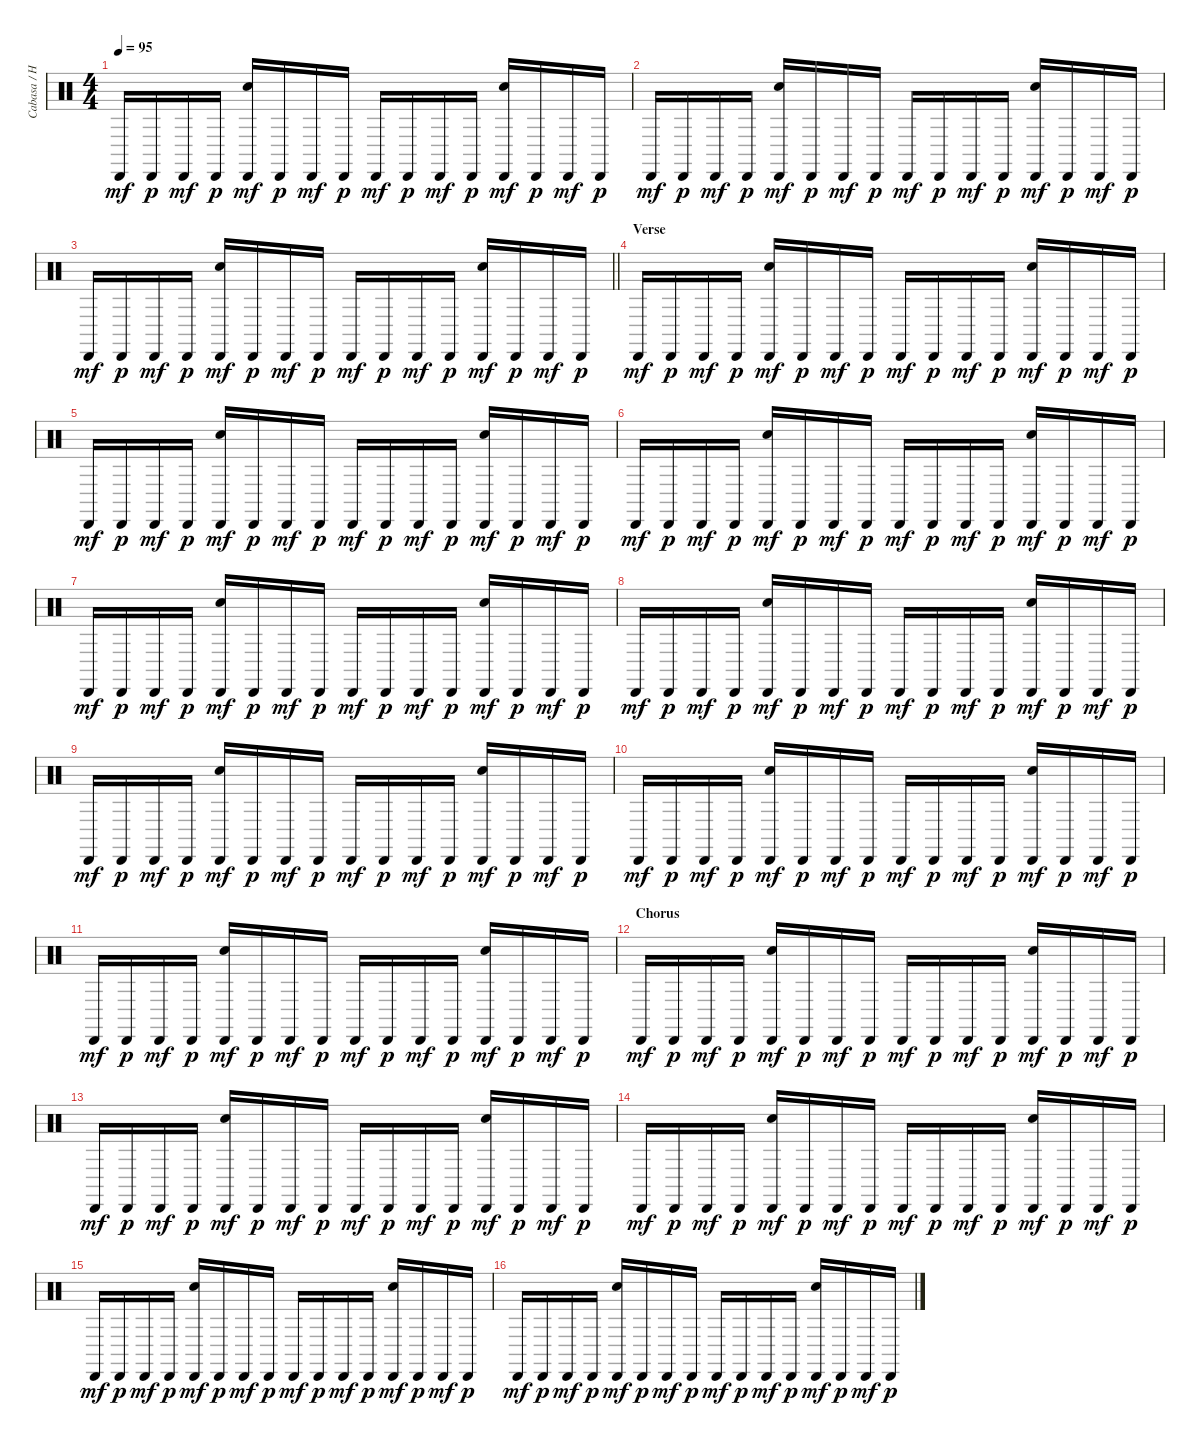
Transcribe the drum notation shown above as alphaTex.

\track ("Cabasa / Hand Clap" "Cabasa / H") {instrument percussion}
\staff {score}
\articulation defaults
\ts (4 4)
\tempo 95
\clef neutral
\ks aminor "Cabasa (hit)".16{dy mf} "Cabasa (hit)".16{dy p} "Cabasa (hit)".16{dy mf} "Cabasa (hit)".16{dy p}
("Hand Clap (hit)" "Cabasa (hit)").16{dy mf} "Cabasa (hit)".16{dy p} "Cabasa (hit)".16{dy mf} "Cabasa (hit)".16{dy p} "Cabasa (hit)".16{dy mf} "Cabasa (hit)".16{dy p} "Cabasa (hit)".16{dy mf} "Cabasa (hit)".16{dy p} ("Hand Clap (hit)" "Cabasa (hit)").16{dy mf} "Cabasa (hit)".16{dy p} "Cabasa (hit)".16{dy mf} "Cabasa (hit)".16{dy p} |
"Cabasa (hit)".16{dy mf} "Cabasa (hit)".16{dy p} "Cabasa (hit)".16{dy mf} "Cabasa (hit)".16{dy p} ("Hand Clap (hit)" "Cabasa (hit)").16{dy mf} "Cabasa (hit)".16{dy p} "Cabasa (hit)".16{dy mf} "Cabasa (hit)".16{dy p} "Cabasa (hit)".16{dy mf} "Cabasa (hit)".16{dy p} "Cabasa (hit)".16{dy mf} "Cabasa (hit)".16{dy p} ("Hand Clap (hit)" "Cabasa (hit)").16{dy mf} "Cabasa (hit)".16{dy p} "Cabasa (hit)".16{dy mf} "Cabasa (hit)".16{dy p} |
\barLineRight lightlight "Cabasa (hit)".16{dy mf} "Cabasa (hit)".16{dy p} "Cabasa (hit)".16{dy mf} "Cabasa (hit)".16{dy p}
("Hand Clap (hit)" "Cabasa (hit)").16{dy mf} "Cabasa (hit)".16{dy p} "Cabasa (hit)".16{dy mf} "Cabasa (hit)".16{dy p} "Cabasa (hit)".16{dy mf} "Cabasa (hit)".16{dy p} "Cabasa (hit)".16{dy mf} "Cabasa (hit)".16{dy p} ("Hand Clap (hit)" "Cabasa (hit)").16{dy mf} "Cabasa (hit)".16{dy p} "Cabasa (hit)".16{dy mf} "Cabasa (hit)".16{dy p} |
\section ("" "Verse")
"Cabasa (hit)".16{dy mf} "Cabasa (hit)".16{dy p} "Cabasa (hit)".16{dy mf} "Cabasa (hit)".16{dy p} ("Hand Clap (hit)" "Cabasa (hit)").16{dy mf} "Cabasa (hit)".16{dy p} "Cabasa (hit)".16{dy mf} "Cabasa (hit)".16{dy p} "Cabasa (hit)".16{dy mf} "Cabasa (hit)".16{dy p} "Cabasa (hit)".16{dy mf} "Cabasa (hit)".16{dy p} ("Hand Clap (hit)" "Cabasa (hit)").16{dy mf} "Cabasa (hit)".16{dy p} "Cabasa (hit)".16{dy mf} "Cabasa (hit)".16{dy p} |
"Cabasa (hit)".16{dy mf} "Cabasa (hit)".16{dy p} "Cabasa (hit)".16{dy mf} "Cabasa (hit)".16{dy p} ("Hand Clap (hit)" "Cabasa (hit)").16{dy mf} "Cabasa (hit)".16{dy p} "Cabasa (hit)".16{dy mf} "Cabasa (hit)".16{dy p} "Cabasa (hit)".16{dy mf} "Cabasa (hit)".16{dy p} "Cabasa (hit)".16{dy mf} "Cabasa (hit)".16{dy p} ("Hand Clap (hit)" "Cabasa (hit)").16{dy mf} "Cabasa (hit)".16{dy p} "Cabasa (hit)".16{dy mf} "Cabasa (hit)".16{dy p} |
"Cabasa (hit)".16{dy mf} "Cabasa (hit)".16{dy p} "Cabasa (hit)".16{dy mf} "Cabasa (hit)".16{dy p} ("Hand Clap (hit)" "Cabasa (hit)").16{dy mf} "Cabasa (hit)".16{dy p} "Cabasa (hit)".16{dy mf} "Cabasa (hit)".16{dy p} "Cabasa (hit)".16{dy mf} "Cabasa (hit)".16{dy p} "Cabasa (hit)".16{dy mf} "Cabasa (hit)".16{dy p} ("Hand Clap (hit)" "Cabasa (hit)").16{dy mf} "Cabasa (hit)".16{dy p} "Cabasa (hit)".16{dy mf} "Cabasa (hit)".16{dy p} |
"Cabasa (hit)".16{dy mf} "Cabasa (hit)".16{dy p} "Cabasa (hit)".16{dy mf} "Cabasa (hit)".16{dy p} ("Hand Clap (hit)" "Cabasa (hit)").16{dy mf} "Cabasa (hit)".16{dy p} "Cabasa (hit)".16{dy mf} "Cabasa (hit)".16{dy p} "Cabasa (hit)".16{dy mf} "Cabasa (hit)".16{dy p} "Cabasa (hit)".16{dy mf} "Cabasa (hit)".16{dy p} ("Hand Clap (hit)" "Cabasa (hit)").16{dy mf} "Cabasa (hit)".16{dy p} "Cabasa (hit)".16{dy mf} "Cabasa (hit)".16{dy p} |
"Cabasa (hit)".16{dy mf} "Cabasa (hit)".16{dy p} "Cabasa (hit)".16{dy mf} "Cabasa (hit)".16{dy p} ("Hand Clap (hit)" "Cabasa (hit)").16{dy mf} "Cabasa (hit)".16{dy p} "Cabasa (hit)".16{dy mf} "Cabasa (hit)".16{dy p} "Cabasa (hit)".16{dy mf} "Cabasa (hit)".16{dy p} "Cabasa (hit)".16{dy mf} "Cabasa (hit)".16{dy p} ("Hand Clap (hit)" "Cabasa (hit)").16{dy mf} "Cabasa (hit)".16{dy p} "Cabasa (hit)".16{dy mf} "Cabasa (hit)".16{dy p} |
"Cabasa (hit)".16{dy mf} "Cabasa (hit)".16{dy p} "Cabasa (hit)".16{dy mf} "Cabasa (hit)".16{dy p} ("Hand Clap (hit)" "Cabasa (hit)").16{dy mf} "Cabasa (hit)".16{dy p} "Cabasa (hit)".16{dy mf} "Cabasa (hit)".16{dy p} "Cabasa (hit)".16{dy mf} "Cabasa (hit)".16{dy p} "Cabasa (hit)".16{dy mf} "Cabasa (hit)".16{dy p} ("Hand Clap (hit)" "Cabasa (hit)").16{dy mf} "Cabasa (hit)".16{dy p} "Cabasa (hit)".16{dy mf} "Cabasa (hit)".16{dy p} |
"Cabasa (hit)".16{dy mf} "Cabasa (hit)".16{dy p} "Cabasa (hit)".16{dy mf} "Cabasa (hit)".16{dy p} ("Hand Clap (hit)" "Cabasa (hit)").16{dy mf} "Cabasa (hit)".16{dy p} "Cabasa (hit)".16{dy mf} "Cabasa (hit)".16{dy p} "Cabasa (hit)".16{dy mf} "Cabasa (hit)".16{dy p} "Cabasa (hit)".16{dy mf} "Cabasa (hit)".16{dy p} ("Hand Clap (hit)" "Cabasa (hit)").16{dy mf} "Cabasa (hit)".16{dy p} "Cabasa (hit)".16{dy mf} "Cabasa (hit)".16{dy p} |
"Cabasa (hit)".16{dy mf} "Cabasa (hit)".16{dy p} "Cabasa (hit)".16{dy mf} "Cabasa (hit)".16{dy p} ("Hand Clap (hit)" "Cabasa (hit)").16{dy mf} "Cabasa (hit)".16{dy p} "Cabasa (hit)".16{dy mf} "Cabasa (hit)".16{dy p} "Cabasa (hit)".16{dy mf} "Cabasa (hit)".16{dy p} "Cabasa (hit)".16{dy mf} "Cabasa (hit)".16{dy p} ("Hand Clap (hit)" "Cabasa (hit)").16{dy mf} "Cabasa (hit)".16{dy p} "Cabasa (hit)".16{dy mf} "Cabasa (hit)".16{dy p} |
\section ("" "Chorus")
"Cabasa (hit)".16{dy mf} "Cabasa (hit)".16{dy p} "Cabasa (hit)".16{dy mf} "Cabasa (hit)".16{dy p} ("Hand Clap (hit)" "Cabasa (hit)").16{dy mf} "Cabasa (hit)".16{dy p} "Cabasa (hit)".16{dy mf} "Cabasa (hit)".16{dy p} "Cabasa (hit)".16{dy mf} "Cabasa (hit)".16{dy p} "Cabasa (hit)".16{dy mf} "Cabasa (hit)".16{dy p} ("Hand Clap (hit)" "Cabasa (hit)").16{dy mf} "Cabasa (hit)".16{dy p} "Cabasa (hit)".16{dy mf} "Cabasa (hit)".16{dy p} |
"Cabasa (hit)".16{dy mf} "Cabasa (hit)".16{dy p} "Cabasa (hit)".16{dy mf} "Cabasa (hit)".16{dy p} ("Hand Clap (hit)" "Cabasa (hit)").16{dy mf} "Cabasa (hit)".16{dy p} "Cabasa (hit)".16{dy mf} "Cabasa (hit)".16{dy p} "Cabasa (hit)".16{dy mf} "Cabasa (hit)".16{dy p} "Cabasa (hit)".16{dy mf} "Cabasa (hit)".16{dy p} ("Hand Clap (hit)" "Cabasa (hit)").16{dy mf} "Cabasa (hit)".16{dy p} "Cabasa (hit)".16{dy mf} "Cabasa (hit)".16{dy p} |
"Cabasa (hit)".16{dy mf} "Cabasa (hit)".16{dy p} "Cabasa (hit)".16{dy mf} "Cabasa (hit)".16{dy p} ("Hand Clap (hit)" "Cabasa (hit)").16{dy mf} "Cabasa (hit)".16{dy p} "Cabasa (hit)".16{dy mf} "Cabasa (hit)".16{dy p} "Cabasa (hit)".16{dy mf} "Cabasa (hit)".16{dy p} "Cabasa (hit)".16{dy mf} "Cabasa (hit)".16{dy p} ("Hand Clap (hit)" "Cabasa (hit)").16{dy mf} "Cabasa (hit)".16{dy p} "Cabasa (hit)".16{dy mf} "Cabasa (hit)".16{dy p} |
"Cabasa (hit)".16{dy mf} "Cabasa (hit)".16{dy p} "Cabasa (hit)".16{dy mf} "Cabasa (hit)".16{dy p} ("Hand Clap (hit)" "Cabasa (hit)").16{dy mf} "Cabasa (hit)".16{dy p} "Cabasa (hit)".16{dy mf} "Cabasa (hit)".16{dy p} "Cabasa (hit)".16{dy mf} "Cabasa (hit)".16{dy p} "Cabasa (hit)".16{dy mf} "Cabasa (hit)".16{dy p} ("Hand Clap (hit)" "Cabasa (hit)").16{dy mf} "Cabasa (hit)".16{dy p} "Cabasa (hit)".16{dy mf} "Cabasa (hit)".16{dy p} |
"Cabasa (hit)".16{dy mf} "Cabasa (hit)".16{dy p} "Cabasa (hit)".16{dy mf} "Cabasa (hit)".16{dy p} ("Hand Clap (hit)" "Cabasa (hit)").16{dy mf} "Cabasa (hit)".16{dy p} "Cabasa (hit)".16{dy mf} "Cabasa (hit)".16{dy p} "Cabasa (hit)".16{dy mf} "Cabasa (hit)".16{dy p} "Cabasa (hit)".16{dy mf} "Cabasa (hit)".16{dy p} ("Hand Clap (hit)" "Cabasa (hit)").16{dy mf} "Cabasa (hit)".16{dy p} "Cabasa (hit)".16{dy mf} "Cabasa (hit)".16{dy p}
